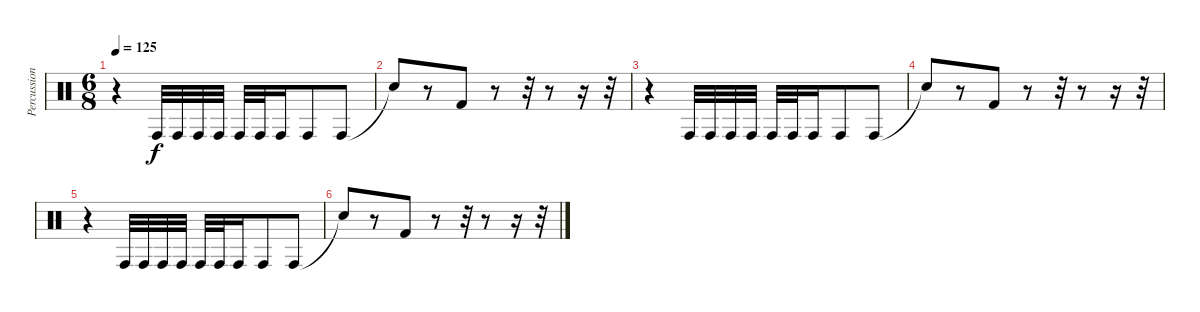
\track ("Percussion" "Percussion") {instrument percussion}
\staff {score}
\articulation defaults
\ts (6 8)
\tempo 125
\clef neutral
\ks c
r.4{dy f} "Conga high (hit)".32 "Conga high (hit)".32 "Conga high (hit)".32 "Conga high (hit)".32 "Conga high (hit)".32 "Conga high (hit)".32 "Conga high (hit)".16 "Conga high (hit)".8 "Conga high (hit)".8 |
"Snare (hit)"{t}.8 r.8 "Kick (hit) 2".8 r.8 r.32 r.8 r.16 r.32 |
r.4 "Conga high (hit)".32 "Conga high (hit)".32 "Conga high (hit)".32 "Conga high (hit)".32 "Conga high (hit)".32 "Conga high (hit)".32 "Conga high (hit)".16 "Conga high (hit)".8 "Conga high (hit)".8 |
"Snare (hit)"{t}.8 r.8 "Kick (hit) 2".8 r.8 r.32 r.8 r.16 r.32 |
r.4 "Conga high (hit)".32 "Conga high (hit)".32 "Conga high (hit)".32 "Conga high (hit)".32 "Conga high (hit)".32 "Conga high (hit)".32 "Conga high (hit)".16 "Conga high (hit)".8 "Conga high (hit)".8 |
"Snare (hit)"{t}.8 r.8 "Kick (hit) 2".8 r.8 r.32 r.8 r.16 r.32
